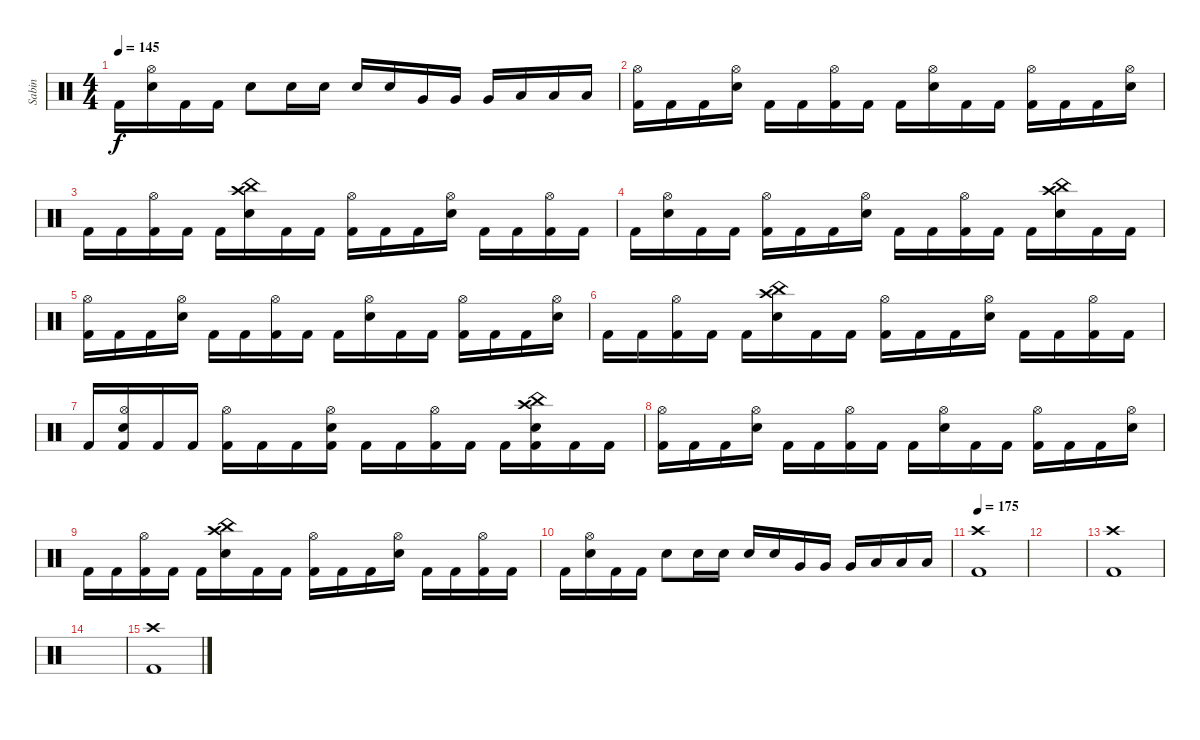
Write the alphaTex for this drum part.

\track ("Sabin" "Sabin") {instrument percussion}
\staff {score}
\articulation defaults
\ts (4 4)
\tempo 145
\clef neutral
\ks c "Kick (hit) 2".16{dy f}
("Hi-Hat (open)" "Snare (hit) 2").16 "Kick (hit) 2".16 "Kick (hit) 2".16 "Snare (hit) 2".8 "Snare (hit) 2".16 "Snare (hit) 2".16 "Snare (hit) 2".16 "Snare (hit) 2".16 "Very Low Tom (hit)".16 "Very Low Tom (hit)".16 "Very Low Tom (hit)".16 "Low Floor Tom (hit)".16 "Low Floor Tom (hit)".16 "Low Floor Tom (hit)".16 |
("Hi-Hat (open)" "Kick (hit) 2").16 "Kick (hit) 2".16 "Kick (hit) 2".16 ("Hi-Hat (open)" "Snare (hit) 2").16 "Kick (hit) 2".16 "Kick (hit) 2".16 ("Hi-Hat (open)" "Kick (hit) 2").16 "Kick (hit) 2".16 "Kick (hit) 2".16 ("Hi-Hat (open)" "Snare (hit) 2").16 "Kick (hit) 2".16 "Kick (hit) 2".16 ("Hi-Hat (open)" "Kick (hit) 2").16 "Kick (hit) 2".16 "Kick (hit) 2".16 ("Hi-Hat (open)" "Snare (hit) 2").16 |
"Kick (hit) 2".16 "Kick (hit) 2".16 ("Hi-Hat (open)" "Kick (hit) 2").16 "Kick (hit) 2".16 "Kick (hit) 2".16 ("China (hit)" "Crash high (hit)" "Snare (hit) 2").16 "Kick (hit) 2".16 "Kick (hit) 2".16 ("Hi-Hat (open)" "Kick (hit) 2").16 "Kick (hit) 2".16 "Kick (hit) 2".16 ("Hi-Hat (open)" "Snare (hit) 2").16 "Kick (hit) 2".16 "Kick (hit) 2".16 ("Hi-Hat (open)" "Kick (hit) 2").16 "Kick (hit) 2".16 |
"Kick (hit) 2".16 ("Hi-Hat (open)" "Snare (hit) 2").16 "Kick (hit) 2".16 "Kick (hit) 2".16 ("Hi-Hat (open)" "Kick (hit) 2").16 "Kick (hit) 2".16 "Kick (hit) 2".16 ("Hi-Hat (open)" "Snare (hit) 2").16 "Kick (hit) 2".16 "Kick (hit) 2".16 ("Hi-Hat (open)" "Kick (hit) 2").16 "Kick (hit) 2".16 "Kick (hit) 2".16 ("China (hit)" "Crash high (hit)" "Snare (hit) 2").16 "Kick (hit) 2".16 "Kick (hit) 2".16 |
("Hi-Hat (open)" "Kick (hit) 2").16 "Kick (hit) 2".16 "Kick (hit) 2".16 ("Hi-Hat (open)" "Snare (hit) 2").16 "Kick (hit) 2".16 "Kick (hit) 2".16 ("Hi-Hat (open)" "Kick (hit) 2").16 "Kick (hit) 2".16 "Kick (hit) 2".16 ("Hi-Hat (open)" "Snare (hit) 2").16 "Kick (hit) 2".16 "Kick (hit) 2".16 ("Hi-Hat (open)" "Kick (hit) 2").16 "Kick (hit) 2".16 "Kick (hit) 2".16 ("Hi-Hat (open)" "Snare (hit) 2").16 |
"Kick (hit) 2".16 "Kick (hit) 2".16 ("Hi-Hat (open)" "Kick (hit) 2").16 "Kick (hit) 2".16 "Kick (hit) 2".16 ("Crash high (hit)" "China (hit)" "Snare (hit) 2").16 "Kick (hit) 2".16 "Kick (hit) 2".16 ("Hi-Hat (open)" "Kick (hit) 2").16 "Kick (hit) 2".16 "Kick (hit) 2".16 ("Hi-Hat (open)" "Snare (hit) 2").16 "Kick (hit) 2".16 "Kick (hit) 2".16 ("Hi-Hat (open)" "Kick (hit) 2").16 "Kick (hit) 2".16 |
"Kick (hit) 2".16 ("Hi-Hat (open)" "Snare (hit) 2" "Kick (hit) 2").16 "Kick (hit) 2".16 "Kick (hit) 2".16 ("Hi-Hat (open)" "Kick (hit) 2").16 "Kick (hit) 2".16 "Kick (hit) 2".16 ("Hi-Hat (open)" "Snare (hit) 2" "Kick (hit) 2").16 "Kick (hit) 2".16 "Kick (hit) 2".16 ("Hi-Hat (open)" "Kick (hit) 2").16 "Kick (hit) 2".16 "Kick (hit) 2".16 ("Crash high (hit)" "China (hit)" "Snare (hit) 2" "Kick (hit) 2").16 "Kick (hit) 2".16 "Kick (hit) 2".16 |
("Hi-Hat (open)" "Kick (hit) 2").16 "Kick (hit) 2".16 "Kick (hit) 2".16 ("Hi-Hat (open)" "Snare (hit) 2").16 "Kick (hit) 2".16 "Kick (hit) 2".16 ("Hi-Hat (open)" "Kick (hit) 2").16 "Kick (hit) 2".16 "Kick (hit) 2".16 ("Hi-Hat (open)" "Snare (hit) 2").16 "Kick (hit) 2".16 "Kick (hit) 2".16 ("Hi-Hat (open)" "Kick (hit) 2").16 "Kick (hit) 2".16 "Kick (hit) 2".16 ("Hi-Hat (open)" "Snare (hit) 2").16 |
"Kick (hit) 2".16 "Kick (hit) 2".16 ("Hi-Hat (open)" "Kick (hit) 2").16 "Kick (hit) 2".16 "Kick (hit) 2".16 ("China (hit)" "Crash high (hit)" "Snare (hit) 2").16 "Kick (hit) 2".16 "Kick (hit) 2".16 ("Hi-Hat (open)" "Kick (hit) 2").16 "Kick (hit) 2".16 "Kick (hit) 2".16 ("Hi-Hat (open)" "Snare (hit) 2").16 "Kick (hit) 2".16 "Kick (hit) 2".16 ("Hi-Hat (open)" "Kick (hit) 2").16 "Kick (hit) 2".16 |
"Kick (hit) 2".16 ("Hi-Hat (open)" "Snare (hit) 2").16 "Kick (hit) 2".16 "Kick (hit) 2".16 "Snare (hit) 2".8 "Snare (hit) 2".16 "Snare (hit) 2".16 "Snare (hit) 2".16 "Snare (hit) 2".16 "Very Low Tom (hit)".16 "Very Low Tom (hit)".16 "Very Low Tom (hit)".16 "Low Floor Tom (hit)".16 "Low Floor Tom (hit)".16 "Low Floor Tom (hit)".16 |
\tempo 175
("Crash high (hit)" "Kick (hit) 2").1 |
|
("Crash high (hit)" "Kick (hit) 2").1 |
|
("Crash high (hit)" "Kick (hit) 2").1
